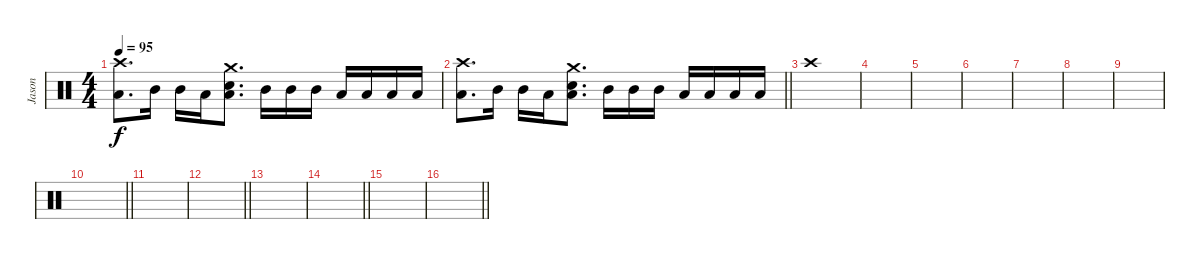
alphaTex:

\track ("Jason" "Jason") {instrument percussion}
\staff {score}
\articulation defaults
\ts (4 4)
\tempo 95
\clef neutral
\ks c
("Crash high (hit)" "Low Floor Tom (hit)").8{d dy f} "Mid Tom (hit)".16 "Mid Tom (hit)".16 "Low Tom (hit)".16 ("Crash medium (hit)" "Electric Snare (hit)" "Low Floor Tom (hit)").8{d} "Mid Tom (hit)".16 "Mid Tom (hit)".16 "Mid Tom (hit)".16 "Low Tom (hit)".16 "Low Tom (hit)".16 "Low Tom (hit)".16 "Low Tom (hit)".16 |
\barLineRight lightlight
("Crash high (hit)" "Low Floor Tom (hit)").8{d} "Mid Tom (hit)".16 "Mid Tom (hit)".16 "Low Tom (hit)".16 ("Crash medium (hit)" "Electric Snare (hit)" "Low Floor Tom (hit)").8{d} "Mid Tom (hit)".16 "Mid Tom (hit)".16 "Mid Tom (hit)".16 "Low Tom (hit)".16 "Low Tom (hit)".16 "Low Tom (hit)".16 "Low Tom (hit)".16 |
"Crash high (hit)".1 |
|
|
|
|
|
|
\barLineRight lightlight
|
|
\barLineRight lightlight
|
|
\barLineRight lightlight
|
|
\barLineRight lightlight
